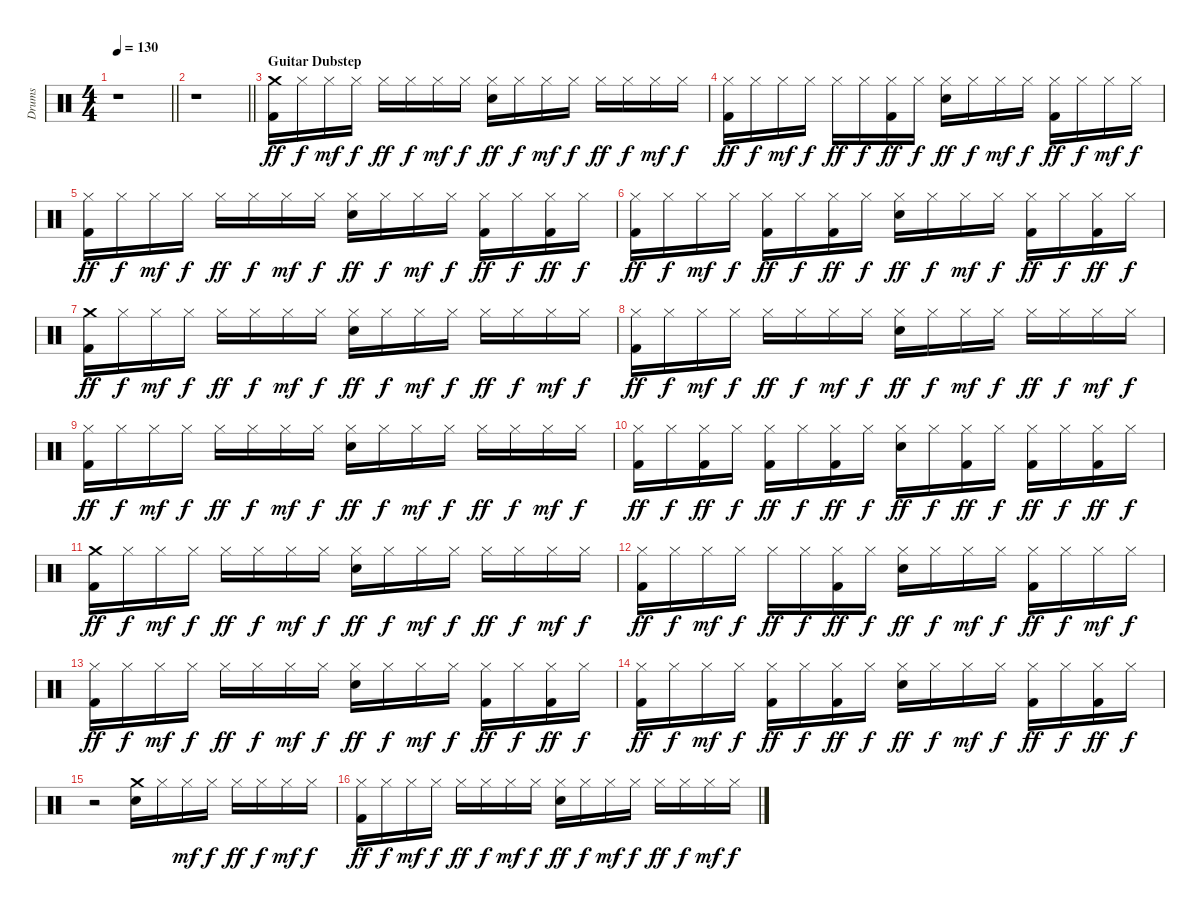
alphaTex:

\track ("Drums" "Drums") {instrument percussion}
\staff {score}
\articulation defaults
\ts (4 4)
\tempo 130
\clef neutral
\barLineRight lightlight
\ks c
r.1{dy f} |
\barLineRight lightlight
r.1 |
\section ("" "Guitar Dubstep")
("Crash medium (hit)" "Kick (hit) 2").16{dy ff} "Hi-Hat (closed)".16{dy f} "Hi-Hat (closed)".16{dy mf} "Hi-Hat (closed)".16{dy f} "Hi-Hat (closed)".16{dy ff} "Hi-Hat (closed)".16{dy f} "Hi-Hat (closed)".16{dy mf} "Hi-Hat (closed)".16{dy f} ("Hi-Hat (closed)" "Snare (hit) 2").16{dy ff} "Hi-Hat (closed)".16{dy f} "Hi-Hat (closed)".16{dy mf} "Hi-Hat (closed)".16{dy f} "Hi-Hat (closed)".16{dy ff} "Hi-Hat (closed)".16{dy f} "Hi-Hat (closed)".16{dy mf} "Hi-Hat (closed)".16{dy f} |
("Hi-Hat (closed)" "Kick (hit) 2").16{dy ff} "Hi-Hat (closed)".16{dy f} "Hi-Hat (closed)".16{dy mf} "Hi-Hat (closed)".16{dy f} "Hi-Hat (closed)".16{dy ff} "Hi-Hat (closed)".16{dy f} ("Hi-Hat (closed)" "Kick (hit) 2").16{dy ff} "Hi-Hat (closed)".16{dy f} ("Hi-Hat (closed)" "Snare (hit) 2").16{dy ff} "Hi-Hat (closed)".16{dy f} "Hi-Hat (closed)".16{dy mf} "Hi-Hat (closed)".16{dy f} ("Hi-Hat (closed)" "Kick (hit) 2").16{dy ff} "Hi-Hat (closed)".16{dy f} "Hi-Hat (closed)".16{dy mf} "Hi-Hat (closed)".16{dy f} |
("Hi-Hat (closed)" "Kick (hit) 2").16{dy ff} "Hi-Hat (closed)".16{dy f} "Hi-Hat (closed)".16{dy mf} "Hi-Hat (closed)".16{dy f} "Hi-Hat (closed)".16{dy ff} "Hi-Hat (closed)".16{dy f} "Hi-Hat (closed)".16{dy mf} "Hi-Hat (closed)".16{dy f} ("Hi-Hat (closed)" "Snare (hit) 2").16{dy ff} "Hi-Hat (closed)".16{dy f} "Hi-Hat (closed)".16{dy mf} "Hi-Hat (closed)".16{dy f} ("Hi-Hat (closed)" "Kick (hit) 2").16{dy ff} "Hi-Hat (closed)".16{dy f} ("Hi-Hat (closed)" "Kick (hit) 2").16{dy ff} "Hi-Hat (closed)".16{dy f} |
("Hi-Hat (closed)" "Kick (hit) 2").16{dy ff} "Hi-Hat (closed)".16{dy f} "Hi-Hat (closed)".16{dy mf} "Hi-Hat (closed)".16{dy f} ("Hi-Hat (closed)" "Kick (hit) 2").16{dy ff} "Hi-Hat (closed)".16{dy f} ("Hi-Hat (closed)" "Kick (hit) 2").16{dy ff} "Hi-Hat (closed)".16{dy f} ("Hi-Hat (closed)" "Snare (hit) 2").16{dy ff} "Hi-Hat (closed)".16{dy f} "Hi-Hat (closed)".16{dy mf} "Hi-Hat (closed)".16{dy f} ("Hi-Hat (closed)" "Kick (hit) 2").16{dy ff} "Hi-Hat (closed)".16{dy f} ("Hi-Hat (closed)" "Kick (hit) 2").16{dy ff} "Hi-Hat (closed)".16{dy f} |
("Crash medium (hit)" "Kick (hit) 2").16{dy ff} "Hi-Hat (closed)".16{dy f} "Hi-Hat (closed)".16{dy mf} "Hi-Hat (closed)".16{dy f} "Hi-Hat (closed)".16{dy ff} "Hi-Hat (closed)".16{dy f} "Hi-Hat (closed)".16{dy mf} "Hi-Hat (closed)".16{dy f} ("Hi-Hat (closed)" "Snare (hit) 2").16{dy ff} "Hi-Hat (closed)".16{dy f} "Hi-Hat (closed)".16{dy mf} "Hi-Hat (closed)".16{dy f} "Hi-Hat (closed)".16{dy ff} "Hi-Hat (closed)".16{dy f} "Hi-Hat (closed)".16{dy mf} "Hi-Hat (closed)".16{dy f} |
("Hi-Hat (closed)" "Kick (hit) 2").16{dy ff} "Hi-Hat (closed)".16{dy f} "Hi-Hat (closed)".16{dy mf} "Hi-Hat (closed)".16{dy f} "Hi-Hat (closed)".16{dy ff} "Hi-Hat (closed)".16{dy f} "Hi-Hat (closed)".16{dy mf} "Hi-Hat (closed)".16{dy f} ("Hi-Hat (closed)" "Snare (hit) 2").16{dy ff} "Hi-Hat (closed)".16{dy f} "Hi-Hat (closed)".16{dy mf} "Hi-Hat (closed)".16{dy f} "Hi-Hat (closed)".16{dy ff} "Hi-Hat (closed)".16{dy f} "Hi-Hat (closed)".16{dy mf} "Hi-Hat (closed)".16{dy f} |
("Hi-Hat (closed)" "Kick (hit) 2").16{dy ff} "Hi-Hat (closed)".16{dy f} "Hi-Hat (closed)".16{dy mf} "Hi-Hat (closed)".16{dy f} "Hi-Hat (closed)".16{dy ff} "Hi-Hat (closed)".16{dy f} "Hi-Hat (closed)".16{dy mf} "Hi-Hat (closed)".16{dy f} ("Hi-Hat (closed)" "Snare (hit) 2").16{dy ff} "Hi-Hat (closed)".16{dy f} "Hi-Hat (closed)".16{dy mf} "Hi-Hat (closed)".16{dy f} "Hi-Hat (closed)".16{dy ff} "Hi-Hat (closed)".16{dy f} "Hi-Hat (closed)".16{dy mf} "Hi-Hat (closed)".16{dy f} |
("Hi-Hat (closed)" "Kick (hit) 2").16{dy ff} "Hi-Hat (closed)".16{dy f} ("Hi-Hat (closed)" "Kick (hit) 2").16{dy ff} "Hi-Hat (closed)".16{dy f} ("Hi-Hat (closed)" "Kick (hit) 2").16{dy ff} "Hi-Hat (closed)".16{dy f} ("Hi-Hat (closed)" "Kick (hit) 2").16{dy ff} "Hi-Hat (closed)".16{dy f} ("Hi-Hat (closed)" "Snare (hit) 2").16{dy ff} "Hi-Hat (closed)".16{dy f} ("Hi-Hat (closed)" "Kick (hit) 2").16{dy ff} "Hi-Hat (closed)".16{dy f} ("Hi-Hat (closed)" "Kick (hit) 2").16{dy ff} "Hi-Hat (closed)".16{dy f} ("Hi-Hat (closed)" "Kick (hit) 2").16{dy ff} "Hi-Hat (closed)".16{dy f} |
("Crash medium (hit)" "Kick (hit) 2").16{dy ff} "Hi-Hat (closed)".16{dy f} "Hi-Hat (closed)".16{dy mf} "Hi-Hat (closed)".16{dy f} "Hi-Hat (closed)".16{dy ff} "Hi-Hat (closed)".16{dy f} "Hi-Hat (closed)".16{dy mf} "Hi-Hat (closed)".16{dy f} ("Hi-Hat (closed)" "Snare (hit) 2").16{dy ff} "Hi-Hat (closed)".16{dy f} "Hi-Hat (closed)".16{dy mf} "Hi-Hat (closed)".16{dy f} "Hi-Hat (closed)".16{dy ff} "Hi-Hat (closed)".16{dy f} "Hi-Hat (closed)".16{dy mf} "Hi-Hat (closed)".16{dy f} |
("Hi-Hat (closed)" "Kick (hit) 2").16{dy ff} "Hi-Hat (closed)".16{dy f} "Hi-Hat (closed)".16{dy mf} "Hi-Hat (closed)".16{dy f} "Hi-Hat (closed)".16{dy ff} "Hi-Hat (closed)".16{dy f} ("Hi-Hat (closed)" "Kick (hit) 2").16{dy ff} "Hi-Hat (closed)".16{dy f} ("Hi-Hat (closed)" "Snare (hit) 2").16{dy ff} "Hi-Hat (closed)".16{dy f} "Hi-Hat (closed)".16{dy mf} "Hi-Hat (closed)".16{dy f} ("Hi-Hat (closed)" "Kick (hit) 2").16{dy ff} "Hi-Hat (closed)".16{dy f} "Hi-Hat (closed)".16{dy mf} "Hi-Hat (closed)".16{dy f} |
("Hi-Hat (closed)" "Kick (hit) 2").16{dy ff} "Hi-Hat (closed)".16{dy f} "Hi-Hat (closed)".16{dy mf} "Hi-Hat (closed)".16{dy f} "Hi-Hat (closed)".16{dy ff} "Hi-Hat (closed)".16{dy f} "Hi-Hat (closed)".16{dy mf} "Hi-Hat (closed)".16{dy f} ("Hi-Hat (closed)" "Snare (hit) 2").16{dy ff} "Hi-Hat (closed)".16{dy f} "Hi-Hat (closed)".16{dy mf} "Hi-Hat (closed)".16{dy f} ("Hi-Hat (closed)" "Kick (hit) 2").16{dy ff} "Hi-Hat (closed)".16{dy f} ("Hi-Hat (closed)" "Kick (hit) 2").16{dy ff} "Hi-Hat (closed)".16{dy f} |
("Hi-Hat (closed)" "Kick (hit) 2").16{dy ff} "Hi-Hat (closed)".16{dy f} "Hi-Hat (closed)".16{dy mf} "Hi-Hat (closed)".16{dy f} ("Hi-Hat (closed)" "Kick (hit) 2").16{dy ff} "Hi-Hat (closed)".16{dy f} ("Hi-Hat (closed)" "Kick (hit) 2").16{dy ff} "Hi-Hat (closed)".16{dy f} ("Hi-Hat (closed)" "Snare (hit) 2").16{dy ff} "Hi-Hat (closed)".16{dy f} "Hi-Hat (closed)".16{dy mf} "Hi-Hat (closed)".16{dy f} ("Hi-Hat (closed)" "Kick (hit) 2").16{dy ff} "Hi-Hat (closed)".16{dy f} ("Hi-Hat (closed)" "Kick (hit) 2").16{dy ff} "Hi-Hat (closed)".16{dy f} |
r.2 ("Crash medium (hit)" "Snare (hit) 2").16 "Hi-Hat (closed)".16 "Hi-Hat (closed)".16{dy mf} "Hi-Hat (closed)".16{dy f} "Hi-Hat (closed)".16{dy ff} "Hi-Hat (closed)".16{dy f} "Hi-Hat (closed)".16{dy mf} "Hi-Hat (closed)".16{dy f} |
("Hi-Hat (closed)" "Kick (hit) 2").16{dy ff} "Hi-Hat (closed)".16{dy f} "Hi-Hat (closed)".16{dy mf} "Hi-Hat (closed)".16{dy f} "Hi-Hat (closed)".16{dy ff} "Hi-Hat (closed)".16{dy f} "Hi-Hat (closed)".16{dy mf} "Hi-Hat (closed)".16{dy f} ("Hi-Hat (closed)" "Snare (hit) 2").16{dy ff} "Hi-Hat (closed)".16{dy f} "Hi-Hat (closed)".16{dy mf} "Hi-Hat (closed)".16{dy f} "Hi-Hat (closed)".16{dy ff} "Hi-Hat (closed)".16{dy f} "Hi-Hat (closed)".16{dy mf} "Hi-Hat (closed)".16{dy f}
